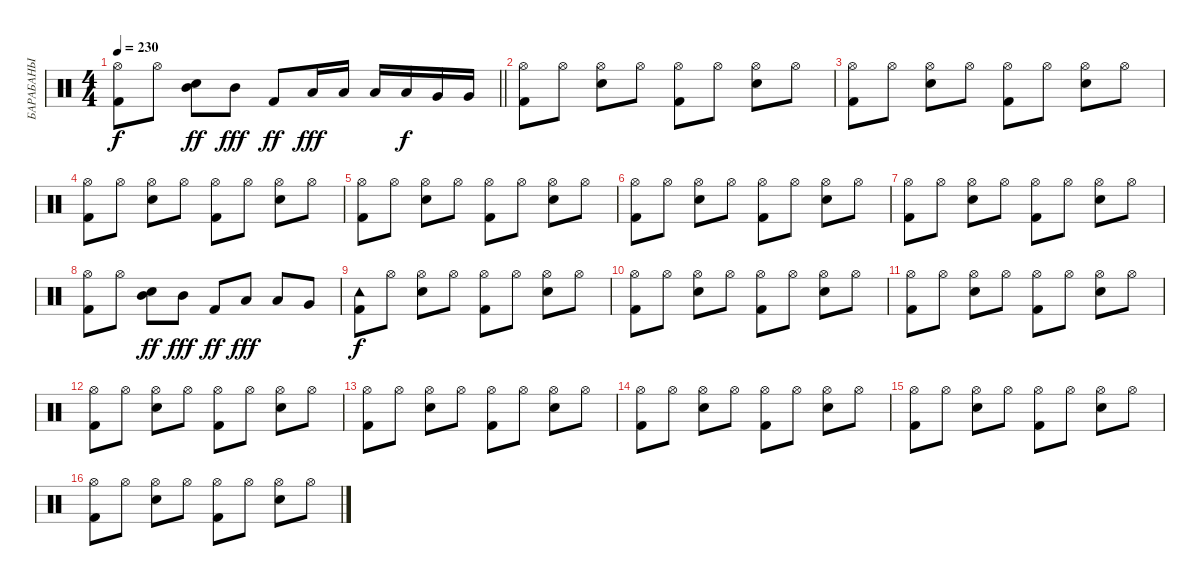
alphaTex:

\track ("БАРАБАНЫ" "БАРАБАНЫ") {instrument percussion}
\staff {score}
\articulation defaults
\ts (4 4)
\tempo 230
\clef neutral
\barLineRight lightlight
\ks c
("Hi-Hat (open)" "Kick (hit) 2").8{dy f} "Hi-Hat (open)".8 ("Mid Tom (hit)" "Electric Snare (hit)").8{dy ff} "Mid Tom (hit)".8{dy fff} "Kick (hit) 2".8{dy ff} "Low Tom (hit)".16{dy fff} "Low Tom (hit)".16 "Low Tom (hit)".16 "Low Tom (hit)".16{dy f} "Very Low Tom (hit)".16 "Very Low Tom (hit)".16 |
("Hi-Hat (open)" "Kick (hit) 2").8 "Hi-Hat (open)".8 ("Hi-Hat (open)" "Electric Snare (hit)").8 "Hi-Hat (open)".8 ("Hi-Hat (open)" "Kick (hit) 2").8 "Hi-Hat (open)".8 ("Hi-Hat (open)" "Electric Snare (hit)").8 "Hi-Hat (open)".8 |
("Hi-Hat (open)" "Kick (hit) 2").8 "Hi-Hat (open)".8 ("Hi-Hat (open)" "Electric Snare (hit)").8 "Hi-Hat (open)".8 ("Hi-Hat (open)" "Kick (hit) 2").8 "Hi-Hat (open)".8 ("Hi-Hat (open)" "Electric Snare (hit)").8 "Hi-Hat (open)".8 |
("Hi-Hat (open)" "Kick (hit) 2").8 "Hi-Hat (open)".8 ("Hi-Hat (open)" "Electric Snare (hit)").8 "Hi-Hat (open)".8 ("Hi-Hat (open)" "Kick (hit) 2").8 "Hi-Hat (open)".8 ("Hi-Hat (open)" "Electric Snare (hit)").8 "Hi-Hat (open)".8 |
("Hi-Hat (open)" "Kick (hit) 2").8 "Hi-Hat (open)".8 ("Hi-Hat (open)" "Electric Snare (hit)").8 "Hi-Hat (open)".8 ("Hi-Hat (open)" "Kick (hit) 2").8 "Hi-Hat (open)".8 ("Hi-Hat (open)" "Electric Snare (hit)").8 "Hi-Hat (open)".8 |
("Hi-Hat (open)" "Kick (hit) 2").8 "Hi-Hat (open)".8 ("Hi-Hat (open)" "Electric Snare (hit)").8 "Hi-Hat (open)".8 ("Hi-Hat (open)" "Kick (hit) 2").8 "Hi-Hat (open)".8 ("Hi-Hat (open)" "Electric Snare (hit)").8 "Hi-Hat (open)".8 |
("Hi-Hat (open)" "Kick (hit) 2").8 "Hi-Hat (open)".8 ("Hi-Hat (open)" "Electric Snare (hit)").8 "Hi-Hat (open)".8 ("Hi-Hat (open)" "Kick (hit) 2").8 "Hi-Hat (open)".8 ("Hi-Hat (open)" "Electric Snare (hit)").8 "Hi-Hat (open)".8 |
("Hi-Hat (open)" "Kick (hit) 2").8 "Hi-Hat (open)".8 ("Mid Tom (hit)" "Electric Snare (hit)").8{dy ff} "Mid Tom (hit)".8{dy fff} "Kick (hit) 2".8{dy ff} "Low Tom (hit)".8{dy fff} "Low Tom (hit)".8 "Very Low Tom (hit)".8 |
("Tambourine (hit)" "Kick (hit) 2").8{dy f} "Hi-Hat (open)".8 ("Hi-Hat (open)" "Electric Snare (hit)").8 "Hi-Hat (open)".8 ("Hi-Hat (open)" "Kick (hit) 2").8 "Hi-Hat (open)".8 ("Hi-Hat (open)" "Electric Snare (hit)").8 "Hi-Hat (open)".8 |
("Hi-Hat (open)" "Kick (hit) 2").8 "Hi-Hat (open)".8 ("Hi-Hat (open)" "Electric Snare (hit)").8 "Hi-Hat (open)".8 ("Hi-Hat (open)" "Kick (hit) 2").8 "Hi-Hat (open)".8 ("Hi-Hat (open)" "Electric Snare (hit)").8 "Hi-Hat (open)".8 |
("Hi-Hat (open)" "Kick (hit) 2").8 "Hi-Hat (open)".8 ("Hi-Hat (open)" "Electric Snare (hit)").8 "Hi-Hat (open)".8 ("Hi-Hat (open)" "Kick (hit) 2").8 "Hi-Hat (open)".8 ("Hi-Hat (open)" "Electric Snare (hit)").8 "Hi-Hat (open)".8 |
("Hi-Hat (open)" "Kick (hit) 2").8 "Hi-Hat (open)".8 ("Hi-Hat (open)" "Electric Snare (hit)").8 "Hi-Hat (open)".8 ("Hi-Hat (open)" "Kick (hit) 2").8 "Hi-Hat (open)".8 ("Hi-Hat (open)" "Electric Snare (hit)").8 "Hi-Hat (open)".8 |
("Hi-Hat (open)" "Kick (hit) 2").8 "Hi-Hat (open)".8 ("Hi-Hat (open)" "Electric Snare (hit)").8 "Hi-Hat (open)".8 ("Hi-Hat (open)" "Kick (hit) 2").8 "Hi-Hat (open)".8 ("Hi-Hat (open)" "Electric Snare (hit)").8 "Hi-Hat (open)".8 |
("Hi-Hat (open)" "Kick (hit) 2").8 "Hi-Hat (open)".8 ("Hi-Hat (open)" "Electric Snare (hit)").8 "Hi-Hat (open)".8 ("Hi-Hat (open)" "Kick (hit) 2").8 "Hi-Hat (open)".8 ("Hi-Hat (open)" "Electric Snare (hit)").8 "Hi-Hat (open)".8 |
("Hi-Hat (open)" "Kick (hit) 2").8 "Hi-Hat (open)".8 ("Hi-Hat (open)" "Electric Snare (hit)").8 "Hi-Hat (open)".8 ("Hi-Hat (open)" "Kick (hit) 2").8 "Hi-Hat (open)".8 ("Hi-Hat (open)" "Electric Snare (hit)").8 "Hi-Hat (open)".8 |
("Hi-Hat (open)" "Kick (hit) 2").8 "Hi-Hat (open)".8 ("Hi-Hat (open)" "Electric Snare (hit)").8 "Hi-Hat (open)".8 ("Hi-Hat (open)" "Kick (hit) 2").8 "Hi-Hat (open)".8 ("Hi-Hat (open)" "Electric Snare (hit)").8 "Hi-Hat (open)".8
